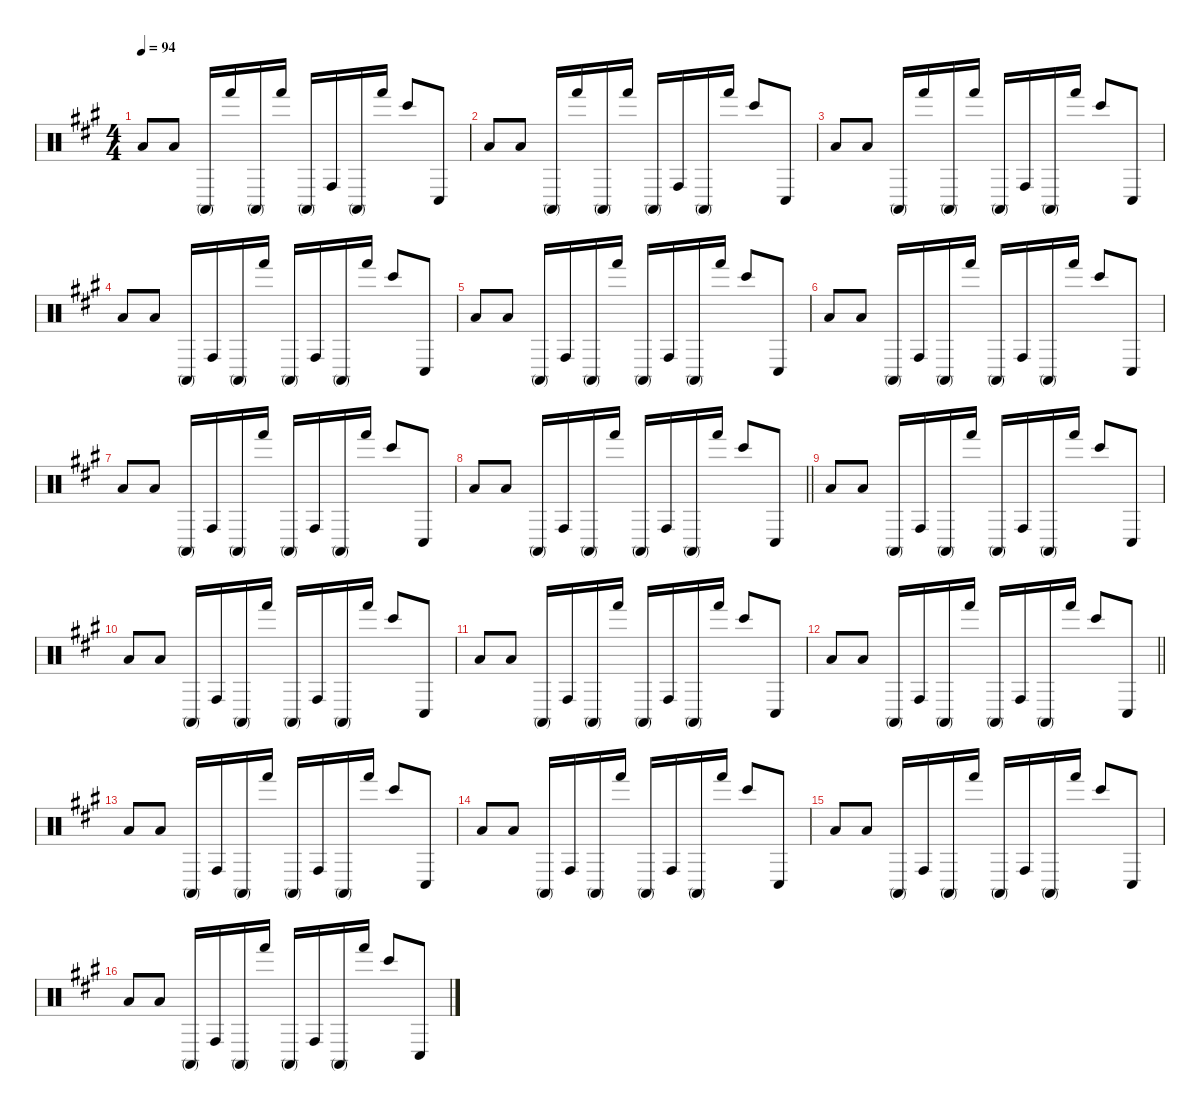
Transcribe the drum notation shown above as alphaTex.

\defaultSystemsLayout 4
\hideDynamics
\bracketExtendMode nobrackets
\singleTrackTrackNamePolicy hidden
\multiTrackTrackNamePolicy hidden
\firstSystemTrackNameMode fullname
\firstSystemTrackNameOrientation horizontal
\otherSystemsTrackNameOrientation horizontal
\track ("Bongos" "drm.") {defaultSystemsLayout 4 instrument percussion}
\staff {score}
\articulation defaults
\ts (4 4)
\tempo 94
\clef neutral
\ks a "Low Floor Tom (hit)"{acc forcenatural}.8{dy f beam Up} "Low Floor Tom (hit)"{acc forcenatural}.8{beam Up} "Conga high (mute)"{acc forcenatural}.16{beam Up} "Hand (hit)"{acc forcenatural}.16{beam Up} "Conga high (mute)"{acc forcenatural}.16{beam Up} "Hand (hit)"{acc forcenatural}.16{beam Up} "Conga high (mute)"{acc forcenatural}.16{beam Up} "Conga high (hit)"{acc forcenatural}.16{beam Up} "Conga high (mute)"{acc forcenatural}.16{beam Up} "Hand (hit)"{acc forcenatural}.16{beam Up} "Bongo High (hit)"{acc forcenatural}.8{beam Up} "Conga low (hit)"{acc forcenatural}.8{beam Up}
|
"Low Floor Tom (hit)"{acc forcenatural}.8{beam Up} "Low Floor Tom (hit)"{acc forcenatural}.8{beam Up} "Conga high (mute)"{acc forcenatural}.16{beam Up} "Hand (hit)"{acc forcenatural}.16{beam Up} "Conga high (mute)"{acc forcenatural}.16{beam Up} "Hand (hit)"{acc forcenatural}.16{beam Up} "Conga high (mute)"{acc forcenatural}.16{beam Up} "Conga high (hit)"{acc forcenatural}.16{beam Up} "Conga high (mute)"{acc forcenatural}.16{beam Up} "Hand (hit)"{acc forcenatural}.16{beam Up} "Bongo High (hit)"{acc forcenatural}.8{beam Up} "Conga low (hit)"{acc forcenatural}.8{beam Up} |
"Low Floor Tom (hit)"{acc forcenatural}.8{beam Up} "Low Floor Tom (hit)"{acc forcenatural}.8{beam Up} "Conga high (mute)"{acc forcenatural}.16{beam Up} "Hand (hit)"{acc forcenatural}.16{beam Up} "Conga high (mute)"{acc forcenatural}.16{beam Up} "Hand (hit)"{acc forcenatural}.16{beam Up} "Conga high (mute)"{acc forcenatural}.16{beam Up} "Conga high (hit)"{acc forcenatural}.16{beam Up} "Conga high (mute)"{acc forcenatural}.16{beam Up} "Hand (hit)"{acc forcenatural}.16{beam Up} "Bongo High (hit)"{acc forcenatural}.8{beam Up} "Conga low (hit)"{acc forcenatural}.8{beam Up} |
"Low Floor Tom (hit)"{acc forcenatural}.8{beam Up} "Low Floor Tom (hit)"{acc forcenatural}.8{beam Up} "Conga high (mute)"{acc forcenatural}.16{beam Up} "Conga high (hit)"{acc forcenatural}.16{beam Up} "Conga high (mute)"{acc forcenatural}.16{beam Up} "Hand (hit)"{acc forcenatural}.16{beam Up} "Conga high (mute)"{acc forcenatural}.16{beam Up} "Conga high (hit)"{acc forcenatural}.16{beam Up} "Conga high (mute)"{acc forcenatural}.16{beam Up} "Hand (hit)"{acc forcenatural}.16{beam Up} "Bongo High (hit)"{acc forcenatural}.8{beam Up} "Conga low (hit)"{acc forcenatural}.8{beam Up} |
"Low Floor Tom (hit)"{acc forcenatural}.8{beam Up} "Low Floor Tom (hit)"{acc forcenatural}.8{beam Up} "Conga high (mute)"{acc forcenatural}.16{beam Up} "Conga high (hit)"{acc forcenatural}.16{beam Up} "Conga high (mute)"{acc forcenatural}.16{beam Up} "Hand (hit)"{acc forcenatural}.16{beam Up} "Conga high (mute)"{acc forcenatural}.16{beam Up} "Conga high (hit)"{acc forcenatural}.16{beam Up} "Conga high (mute)"{acc forcenatural}.16{beam Up} "Hand (hit)"{acc forcenatural}.16{beam Up} "Bongo High (hit)"{acc forcenatural}.8{beam Up} "Conga low (hit)"{acc forcenatural}.8{beam Up} |
"Low Floor Tom (hit)"{acc forcenatural}.8{beam Up} "Low Floor Tom (hit)"{acc forcenatural}.8{beam Up} "Conga high (mute)"{acc forcenatural}.16{beam Up} "Conga high (hit)"{acc forcenatural}.16{beam Up} "Conga high (mute)"{acc forcenatural}.16{beam Up} "Hand (hit)"{acc forcenatural}.16{beam Up} "Conga high (mute)"{acc forcenatural}.16{beam Up} "Conga high (hit)"{acc forcenatural}.16{beam Up} "Conga high (mute)"{acc forcenatural}.16{beam Up} "Hand (hit)"{acc forcenatural}.16{beam Up} "Bongo High (hit)"{acc forcenatural}.8{beam Up} "Conga low (hit)"{acc forcenatural}.8{beam Up} |
"Low Floor Tom (hit)"{acc forcenatural}.8{beam Up} "Low Floor Tom (hit)"{acc forcenatural}.8{beam Up} "Conga high (mute)"{acc forcenatural}.16{beam Up} "Conga high (hit)"{acc forcenatural}.16{beam Up} "Conga high (mute)"{acc forcenatural}.16{beam Up} "Hand (hit)"{acc forcenatural}.16{beam Up} "Conga high (mute)"{acc forcenatural}.16{beam Up} "Conga high (hit)"{acc forcenatural}.16{beam Up} "Conga high (mute)"{acc forcenatural}.16{beam Up} "Hand (hit)"{acc forcenatural}.16{beam Up} "Bongo High (hit)"{acc forcenatural}.8{beam Up} "Conga low (hit)"{acc forcenatural}.8{beam Up} |
\barLineRight lightlight "Low Floor Tom (hit)"{acc forcenatural}.8{beam Up} "Low Floor Tom (hit)"{acc forcenatural}.8{beam Up} "Conga high (mute)"{acc forcenatural}.16{beam Up} "Conga high (hit)"{acc forcenatural}.16{beam Up} "Conga high (mute)"{acc forcenatural}.16{beam Up} "Hand (hit)"{acc forcenatural}.16{beam Up} "Conga high (mute)"{acc forcenatural}.16{beam Up} "Conga high (hit)"{acc forcenatural}.16{beam Up} "Conga high (mute)"{acc forcenatural}.16{beam Up} "Hand (hit)"{acc forcenatural}.16{beam Up} "Bongo High (hit)"{acc forcenatural}.8{beam Up} "Conga low (hit)"{acc forcenatural}.8{beam Up}
|
"Low Floor Tom (hit)"{acc forcenatural}.8{beam Up} "Low Floor Tom (hit)"{acc forcenatural}.8{beam Up} "Conga high (mute)"{acc forcenatural}.16{beam Up} "Conga high (hit)"{acc forcenatural}.16{beam Up} "Conga high (mute)"{acc forcenatural}.16{beam Up} "Hand (hit)"{acc forcenatural}.16{beam Up} "Conga high (mute)"{acc forcenatural}.16{beam Up} "Conga high (hit)"{acc forcenatural}.16{beam Up} "Conga high (mute)"{acc forcenatural}.16{beam Up} "Hand (hit)"{acc forcenatural}.16{beam Up} "Bongo High (hit)"{acc forcenatural}.8{beam Up} "Conga low (hit)"{acc forcenatural}.8{beam Up} |
"Low Floor Tom (hit)"{acc forcenatural}.8{beam Up} "Low Floor Tom (hit)"{acc forcenatural}.8{beam Up} "Conga high (mute)"{acc forcenatural}.16{beam Up} "Conga high (hit)"{acc forcenatural}.16{beam Up} "Conga high (mute)"{acc forcenatural}.16{beam Up} "Hand (hit)"{acc forcenatural}.16{beam Up} "Conga high (mute)"{acc forcenatural}.16{beam Up} "Conga high (hit)"{acc forcenatural}.16{beam Up} "Conga high (mute)"{acc forcenatural}.16{beam Up} "Hand (hit)"{acc forcenatural}.16{beam Up} "Bongo High (hit)"{acc forcenatural}.8{beam Up} "Conga low (hit)"{acc forcenatural}.8{beam Up} |
"Low Floor Tom (hit)"{acc forcenatural}.8{beam Up} "Low Floor Tom (hit)"{acc forcenatural}.8{beam Up} "Conga high (mute)"{acc forcenatural}.16{beam Up} "Conga high (hit)"{acc forcenatural}.16{beam Up} "Conga high (mute)"{acc forcenatural}.16{beam Up} "Hand (hit)"{acc forcenatural}.16{beam Up} "Conga high (mute)"{acc forcenatural}.16{beam Up} "Conga high (hit)"{acc forcenatural}.16{beam Up} "Conga high (mute)"{acc forcenatural}.16{beam Up} "Hand (hit)"{acc forcenatural}.16{beam Up} "Bongo High (hit)"{acc forcenatural}.8{beam Up} "Conga low (hit)"{acc forcenatural}.8{beam Up} |
\barLineRight lightlight "Low Floor Tom (hit)"{acc forcenatural}.8{beam Up} "Low Floor Tom (hit)"{acc forcenatural}.8{beam Up} "Conga high (mute)"{acc forcenatural}.16{beam Up} "Conga high (hit)"{acc forcenatural}.16{beam Up} "Conga high (mute)"{acc forcenatural}.16{beam Up} "Hand (hit)"{acc forcenatural}.16{beam Up} "Conga high (mute)"{acc forcenatural}.16{beam Up} "Conga high (hit)"{acc forcenatural}.16{beam Up} "Conga high (mute)"{acc forcenatural}.16{beam Up} "Hand (hit)"{acc forcenatural}.16{beam Up} "Bongo High (hit)"{acc forcenatural}.8{beam Up} "Conga low (hit)"{acc forcenatural}.8{beam Up}
|
"Low Floor Tom (hit)"{acc forcenatural}.8{beam Up} "Low Floor Tom (hit)"{acc forcenatural}.8{beam Up} "Conga high (mute)"{acc forcenatural}.16{beam Up} "Conga high (hit)"{acc forcenatural}.16{beam Up} "Conga high (mute)"{acc forcenatural}.16{beam Up} "Hand (hit)"{acc forcenatural}.16{beam Up} "Conga high (mute)"{acc forcenatural}.16{beam Up} "Conga high (hit)"{acc forcenatural}.16{beam Up} "Conga high (mute)"{acc forcenatural}.16{beam Up} "Hand (hit)"{acc forcenatural}.16{beam Up} "Bongo High (hit)"{acc forcenatural}.8{beam Up} "Conga low (hit)"{acc forcenatural}.8{beam Up} |
"Low Floor Tom (hit)"{acc forcenatural}.8{beam Up} "Low Floor Tom (hit)"{acc forcenatural}.8{beam Up} "Conga high (mute)"{acc forcenatural}.16{beam Up} "Conga high (hit)"{acc forcenatural}.16{beam Up} "Conga high (mute)"{acc forcenatural}.16{beam Up} "Hand (hit)"{acc forcenatural}.16{beam Up} "Conga high (mute)"{acc forcenatural}.16{beam Up} "Conga high (hit)"{acc forcenatural}.16{beam Up} "Conga high (mute)"{acc forcenatural}.16{beam Up} "Hand (hit)"{acc forcenatural}.16{beam Up} "Bongo High (hit)"{acc forcenatural}.8{beam Up} "Conga low (hit)"{acc forcenatural}.8{beam Up} |
"Low Floor Tom (hit)"{acc forcenatural}.8{beam Up} "Low Floor Tom (hit)"{acc forcenatural}.8{beam Up} "Conga high (mute)"{acc forcenatural}.16{beam Up} "Conga high (hit)"{acc forcenatural}.16{beam Up} "Conga high (mute)"{acc forcenatural}.16{beam Up} "Hand (hit)"{acc forcenatural}.16{beam Up} "Conga high (mute)"{acc forcenatural}.16{beam Up} "Conga high (hit)"{acc forcenatural}.16{beam Up} "Conga high (mute)"{acc forcenatural}.16{beam Up} "Hand (hit)"{acc forcenatural}.16{beam Up} "Bongo High (hit)"{acc forcenatural}.8{beam Up} "Conga low (hit)"{acc forcenatural}.8{beam Up} |
"Low Floor Tom (hit)"{acc forcenatural}.8{beam Up} "Low Floor Tom (hit)"{acc forcenatural}.8{beam Up} "Conga high (mute)"{acc forcenatural}.16{beam Up} "Conga high (hit)"{acc forcenatural}.16{beam Up} "Conga high (mute)"{acc forcenatural}.16{beam Up} "Hand (hit)"{acc forcenatural}.16{beam Up} "Conga high (mute)"{acc forcenatural}.16{beam Up} "Conga high (hit)"{acc forcenatural}.16{beam Up} "Conga high (mute)"{acc forcenatural}.16{beam Up} "Hand (hit)"{acc forcenatural}.16{beam Up} "Bongo High (hit)"{acc forcenatural}.8{beam Up} "Conga low (hit)"{acc forcenatural}.8{beam Up}
